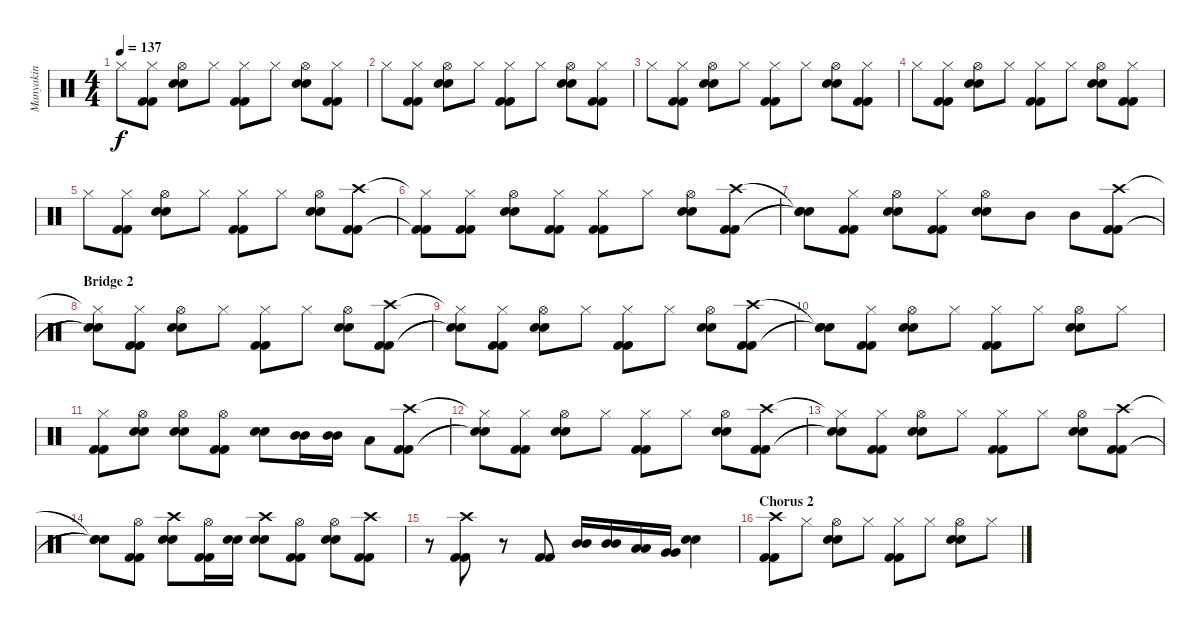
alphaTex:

\track ("Manyakin" "Manyakin") {instrument percussion}
\staff {score}
\articulation defaults
\ts (4 4)
\tempo 137
\clef neutral
\ks c "Hi-Hat (closed)".8{dy f}
("Hi-Hat (closed)" "Kick (hit) 2" "Kick (hit) 2").8 ("Hi-Hat (open)" "Electric Snare (hit)" "Electric Snare (hit)").8 "Hi-Hat (closed)".8 ("Hi-Hat (closed)" "Kick (hit) 2" "Kick (hit) 2").8 "Hi-Hat (closed)".8 ("Hi-Hat (open)" "Electric Snare (hit)" "Electric Snare (hit)").8 ("Hi-Hat (closed)" "Kick (hit) 2" "Kick (hit) 2").8 |
"Hi-Hat (closed)".8 ("Hi-Hat (closed)" "Kick (hit) 2" "Kick (hit) 2").8 ("Hi-Hat (open)" "Electric Snare (hit)" "Electric Snare (hit)").8 "Hi-Hat (closed)".8 ("Hi-Hat (closed)" "Kick (hit) 2" "Kick (hit) 2").8 "Hi-Hat (closed)".8 ("Hi-Hat (open)" "Electric Snare (hit)" "Electric Snare (hit)").8 ("Hi-Hat (closed)" "Kick (hit) 2" "Kick (hit) 2").8 |
"Hi-Hat (closed)".8 ("Hi-Hat (closed)" "Kick (hit) 2" "Kick (hit) 2").8 ("Hi-Hat (open)" "Electric Snare (hit)" "Electric Snare (hit)").8 "Hi-Hat (closed)".8 ("Hi-Hat (closed)" "Kick (hit) 2" "Kick (hit) 2").8 "Hi-Hat (closed)".8 ("Hi-Hat (open)" "Electric Snare (hit)" "Electric Snare (hit)").8 ("Hi-Hat (closed)" "Kick (hit) 2" "Kick (hit) 2").8 |
"Hi-Hat (closed)".8 ("Hi-Hat (closed)" "Kick (hit) 2" "Kick (hit) 2").8 ("Hi-Hat (open)" "Electric Snare (hit)" "Electric Snare (hit)").8 "Hi-Hat (closed)".8 ("Hi-Hat (closed)" "Kick (hit) 2" "Kick (hit) 2").8 "Hi-Hat (closed)".8 ("Hi-Hat (open)" "Electric Snare (hit)" "Electric Snare (hit)").8 ("Hi-Hat (closed)" "Kick (hit) 2" "Kick (hit) 2").8 |
"Hi-Hat (closed)".8 ("Hi-Hat (closed)" "Kick (hit) 2" "Kick (hit) 2").8 ("Hi-Hat (open)" "Electric Snare (hit)" "Electric Snare (hit)").8 "Hi-Hat (closed)".8 ("Hi-Hat (closed)" "Kick (hit) 2" "Kick (hit) 2").8 "Hi-Hat (closed)".8 ("Hi-Hat (open)" "Electric Snare (hit)" "Electric Snare (hit)").8 ("Crash high (hit)" "Kick (hit) 2" "Kick (hit) 2").8 |
("Hi-Hat (closed)"{t} "Kick (hit) 2"{t} "Kick (hit) 2"{t}).8 ("Hi-Hat (closed)" "Kick (hit) 2" "Kick (hit) 2").8 ("Hi-Hat (open)" "Electric Snare (hit)" "Electric Snare (hit)").8 ("Hi-Hat (closed)" "Kick (hit) 2" "Kick (hit) 2").8 ("Hi-Hat (closed)" "Kick (hit) 2" "Kick (hit) 2").8 "Hi-Hat (closed)".8 ("Hi-Hat (open)" "Electric Snare (hit)" "Electric Snare (hit)").8 ("Crash high (hit)" "Kick (hit) 2" "Kick (hit) 2").8 |
("Snare (hit)"{t} "Snare (hit)"{t} "Snare (hit)"{t}).8 ("Hi-Hat (closed)" "Kick (hit) 2" "Kick (hit) 2").8 ("Hi-Hat (open)" "Electric Snare (hit)" "Electric Snare (hit)").8 ("Hi-Hat (closed)" "Kick (hit) 2" "Kick (hit) 2").8 ("Hi-Hat (open)" "Electric Snare (hit)" "Electric Snare (hit)").8 "Mid Tom (hit)".8 "Mid Tom (hit)".8 ("Crash high (hit)" "Kick (hit) 2" "Kick (hit) 2").8 |
\section ("" "Bridge 2")
("Hi-Hat (closed)"{t} "Snare (hit)"{t} "Snare (hit)"{t}).8 ("Hi-Hat (closed)" "Kick (hit) 2" "Kick (hit) 2").8 ("Hi-Hat (open)" "Electric Snare (hit)" "Electric Snare (hit)").8 "Hi-Hat (closed)".8 ("Hi-Hat (closed)" "Kick (hit) 2" "Kick (hit) 2").8 "Hi-Hat (closed)".8 ("Hi-Hat (open)" "Electric Snare (hit)" "Electric Snare (hit)").8 ("Crash high (hit)" "Kick (hit) 2" "Kick (hit) 2").8 |
("Hi-Hat (closed)"{t} "Snare (hit)"{t} "Snare (hit)"{t}).8 ("Hi-Hat (closed)" "Kick (hit) 2" "Kick (hit) 2").8 ("Hi-Hat (open)" "Electric Snare (hit)" "Electric Snare (hit)").8 "Hi-Hat (closed)".8 ("Hi-Hat (closed)" "Kick (hit) 2" "Kick (hit) 2").8 "Hi-Hat (closed)".8 ("Hi-Hat (open)" "Electric Snare (hit)" "Electric Snare (hit)").8 ("Crash high (hit)" "Kick (hit) 2" "Kick (hit) 2").8 |
("Snare (hit)"{t} "Snare (hit)"{t} "Snare (hit)"{t}).8 ("Hi-Hat (closed)" "Kick (hit) 2" "Kick (hit) 2").8 ("Hi-Hat (open)" "Electric Snare (hit)" "Electric Snare (hit)").8 "Hi-Hat (closed)".8 ("Hi-Hat (closed)" "Kick (hit) 2" "Kick (hit) 2").8 "Hi-Hat (closed)".8 ("Hi-Hat (open)" "Electric Snare (hit)" "Electric Snare (hit)").8 "Hi-Hat (closed)".8 |
("Hi-Hat (closed)" "Kick (hit) 2" "Kick (hit) 2").8 ("Hi-Hat (open)" "Electric Snare (hit)" "Electric Snare (hit)").8 ("Hi-Hat (open)" "Electric Snare (hit)" "Electric Snare (hit)").8 ("Hi-Hat (open)" "Kick (hit) 2" "Kick (hit) 2").8 ("Electric Snare (hit)" "Electric Snare (hit)").8 ("Mid Tom (hit)" "Mid Tom (hit)").16 ("Mid Tom (hit)" "Mid Tom (hit)").16 "Low Tom (hit)".8 ("Crash high (hit)" "Kick (hit) 2" "Kick (hit) 2").8 |
("Hi-Hat (closed)"{t} "Snare (hit)"{t} "Snare (hit)"{t}).8 ("Hi-Hat (closed)" "Kick (hit) 2" "Kick (hit) 2").8 ("Hi-Hat (open)" "Electric Snare (hit)" "Electric Snare (hit)").8 "Hi-Hat (closed)".8 ("Hi-Hat (closed)" "Kick (hit) 2" "Kick (hit) 2").8 "Hi-Hat (closed)".8 ("Hi-Hat (open)" "Electric Snare (hit)" "Electric Snare (hit)").8 ("Crash high (hit)" "Kick (hit) 2" "Kick (hit) 2").8 |
("Hi-Hat (closed)"{t} "Snare (hit)"{t} "Snare (hit)"{t}).8 ("Hi-Hat (closed)" "Kick (hit) 2" "Kick (hit) 2").8 ("Hi-Hat (open)" "Electric Snare (hit)" "Electric Snare (hit)").8 "Hi-Hat (closed)".8 ("Hi-Hat (closed)" "Kick (hit) 2" "Kick (hit) 2").8 "Hi-Hat (closed)".8 ("Hi-Hat (open)" "Electric Snare (hit)" "Electric Snare (hit)").8 ("Crash high (hit)" "Kick (hit) 2" "Kick (hit) 2").8 |
("Snare (hit)"{t} "Snare (hit)"{t} "Snare (hit)"{t}).8 ("Hi-Hat (open)" "Kick (hit) 2" "Kick (hit) 2").8 ("Crash high (hit)" "Electric Snare (hit)" "Electric Snare (hit)").8 ("Hi-Hat (open)" "Kick (hit) 2" "Kick (hit) 2").16 ("Electric Snare (hit)" "Electric Snare (hit)").16 ("Crash high (hit)" "Electric Snare (hit)" "Electric Snare (hit)").8 ("Hi-Hat (open)" "Kick (hit) 2" "Kick (hit) 2").8 ("Hi-Hat (open)" "Electric Snare (hit)" "Electric Snare (hit)").8 ("Crash high (hit)" "Kick (hit) 2" "Kick (hit) 2").8 |
r.8 ("Crash high (hit)" "Kick (hit) 2" "Kick (hit) 2").8 r.8 ("Kick (hit) 2" "Kick (hit) 2").8 ("Mid Tom (hit)" "Mid Tom (hit)").16 ("Mid Tom (hit)" "Mid Tom (hit)").16 ("Low Tom (hit)" "Low Tom (hit)").16 ("Very Low Tom (hit)" "Very Low Tom (hit)").16 ("Electric Snare (hit)" "Electric Snare (hit)").4 |
\section ("" "Chorus 2")
("Crash high (hit)" "Kick (hit) 2" "Kick (hit) 2").8 "Hi-Hat (closed)".8 ("Hi-Hat (open)" "Electric Snare (hit)" "Electric Snare (hit)").8 "Hi-Hat (closed)".8 ("Hi-Hat (closed)" "Kick (hit) 2" "Kick (hit) 2").8 "Hi-Hat (closed)".8 ("Hi-Hat (open)" "Electric Snare (hit)" "Electric Snare (hit)").8 "Hi-Hat (closed)".8
